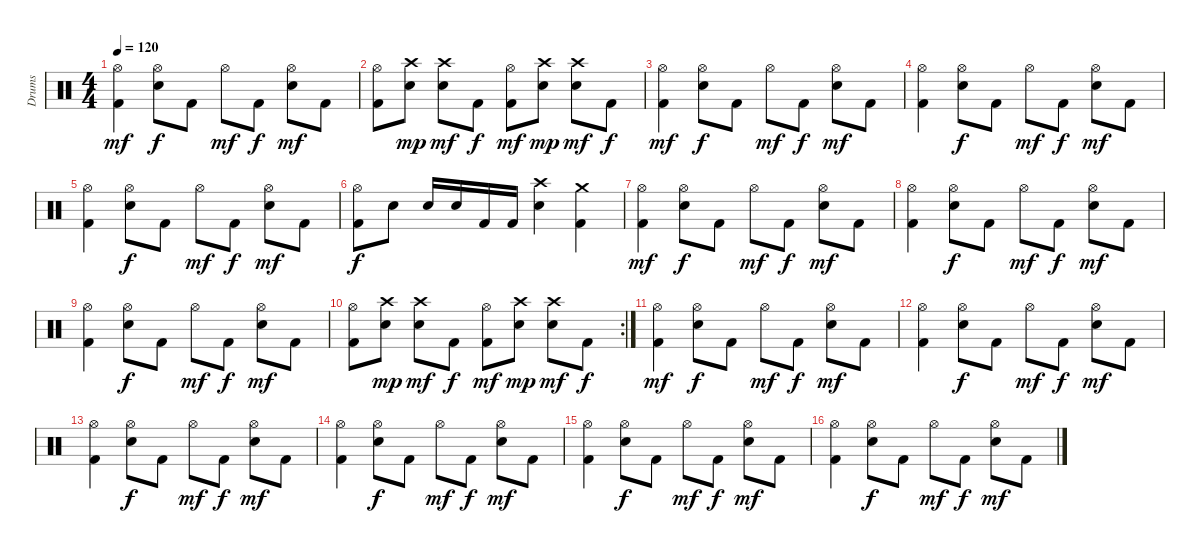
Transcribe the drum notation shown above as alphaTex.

\track ("Drums" "Drums") {instrument percussion}
\staff {score}
\articulation defaults
\ts (4 4)
\tempo 120
\clef neutral
\ks c
("Kick (hit) 2" "Hi-Hat (open)").4{dy mf} ("Hi-Hat (open)" "Electric Snare (hit)").8{dy f} "Kick (hit) 2".8 "Hi-Hat (open)".8{dy mf} "Kick (hit) 2".8{dy f} ("Electric Snare (hit)" "Hi-Hat (open)").8{dy mf} "Kick (hit) 2".8 |
("Kick (hit) 2" "Hi-Hat (open)").8 ("Electric Snare (hit)" "Crash high (hit)").8{dy mp} ("Electric Snare (hit)" "Crash high (hit)").8{dy mf} "Kick (hit) 2".8{dy f} ("Kick (hit) 2" "Hi-Hat (open)").8{dy mf} ("Electric Snare (hit)" "Crash high (hit)").8{dy mp} ("Electric Snare (hit)" "Crash high (hit)").8{dy mf} "Kick (hit) 2".8{dy f} |
("Kick (hit) 2" "Hi-Hat (open)").4{dy mf} ("Hi-Hat (open)" "Electric Snare (hit)").8{dy f} "Kick (hit) 2".8 "Hi-Hat (open)".8{dy mf} "Kick (hit) 2".8{dy f} ("Electric Snare (hit)" "Hi-Hat (open)").8{dy mf} "Kick (hit) 2".8 |
("Kick (hit) 2" "Hi-Hat (open)").4 ("Hi-Hat (open)" "Electric Snare (hit)").8{dy f} "Kick (hit) 2".8 "Hi-Hat (open)".8{dy mf} "Kick (hit) 2".8{dy f} ("Electric Snare (hit)" "Hi-Hat (open)").8{dy mf} "Kick (hit) 2".8 |
("Kick (hit) 2" "Hi-Hat (open)").4 ("Hi-Hat (open)" "Electric Snare (hit)").8{dy f} "Kick (hit) 2".8 "Hi-Hat (open)".8{dy mf} "Kick (hit) 2".8{dy f} ("Electric Snare (hit)" "Hi-Hat (open)").8{dy mf} "Kick (hit) 2".8 |
("Kick (hit) 2" "Hi-Hat (open)").8{dy f} "Electric Snare (hit)".8 "Electric Snare (hit)".16 "Electric Snare (hit)".16 "Kick (hit) 2".16 "Kick (hit) 2".16 ("Crash high (hit)" "Electric Snare (hit)").4 ("Kick (hit) 2" "Crash medium (hit)").4 |
("Kick (hit) 2" "Hi-Hat (open)").4{dy mf} ("Hi-Hat (open)" "Electric Snare (hit)").8{dy f} "Kick (hit) 2".8 "Hi-Hat (open)".8{dy mf} "Kick (hit) 2".8{dy f} ("Electric Snare (hit)" "Hi-Hat (open)").8{dy mf} "Kick (hit) 2".8 |
("Kick (hit) 2" "Hi-Hat (open)").4 ("Hi-Hat (open)" "Electric Snare (hit)").8{dy f} "Kick (hit) 2".8 "Hi-Hat (open)".8{dy mf} "Kick (hit) 2".8{dy f} ("Electric Snare (hit)" "Hi-Hat (open)").8{dy mf} "Kick (hit) 2".8 |
("Kick (hit) 2" "Hi-Hat (open)").4 ("Hi-Hat (open)" "Electric Snare (hit)").8{dy f} "Kick (hit) 2".8 "Hi-Hat (open)".8{dy mf} "Kick (hit) 2".8{dy f} ("Electric Snare (hit)" "Hi-Hat (open)").8{dy mf} "Kick (hit) 2".8 |
\rc 2
("Kick (hit) 2" "Hi-Hat (open)").8 ("Electric Snare (hit)" "Crash high (hit)").8{dy mp} ("Electric Snare (hit)" "Crash high (hit)").8{dy mf} "Kick (hit) 2".8{dy f} ("Kick (hit) 2" "Hi-Hat (open)").8{dy mf} ("Electric Snare (hit)" "Crash high (hit)").8{dy mp} ("Electric Snare (hit)" "Crash high (hit)").8{dy mf} "Kick (hit) 2".8{dy f} |
("Kick (hit) 2" "Hi-Hat (open)").4{dy mf} ("Hi-Hat (open)" "Electric Snare (hit)").8{dy f} "Kick (hit) 2".8 "Hi-Hat (open)".8{dy mf} "Kick (hit) 2".8{dy f} ("Electric Snare (hit)" "Hi-Hat (open)").8{dy mf} "Kick (hit) 2".8 |
("Kick (hit) 2" "Hi-Hat (open)").4 ("Hi-Hat (open)" "Electric Snare (hit)").8{dy f} "Kick (hit) 2".8 "Hi-Hat (open)".8{dy mf} "Kick (hit) 2".8{dy f} ("Electric Snare (hit)" "Hi-Hat (open)").8{dy mf} "Kick (hit) 2".8 |
("Kick (hit) 2" "Hi-Hat (open)").4 ("Hi-Hat (open)" "Electric Snare (hit)").8{dy f} "Kick (hit) 2".8 "Hi-Hat (open)".8{dy mf} "Kick (hit) 2".8{dy f} ("Electric Snare (hit)" "Hi-Hat (open)").8{dy mf} "Kick (hit) 2".8 |
("Kick (hit) 2" "Hi-Hat (open)").4 ("Hi-Hat (open)" "Electric Snare (hit)").8{dy f} "Kick (hit) 2".8 "Hi-Hat (open)".8{dy mf} "Kick (hit) 2".8{dy f} ("Electric Snare (hit)" "Hi-Hat (open)").8{dy mf} "Kick (hit) 2".8 |
("Kick (hit) 2" "Hi-Hat (open)").4 ("Hi-Hat (open)" "Electric Snare (hit)").8{dy f} "Kick (hit) 2".8 "Hi-Hat (open)".8{dy mf} "Kick (hit) 2".8{dy f} ("Electric Snare (hit)" "Hi-Hat (open)").8{dy mf} "Kick (hit) 2".8 |
("Kick (hit) 2" "Hi-Hat (open)").4 ("Hi-Hat (open)" "Electric Snare (hit)").8{dy f} "Kick (hit) 2".8 "Hi-Hat (open)".8{dy mf} "Kick (hit) 2".8{dy f} ("Electric Snare (hit)" "Hi-Hat (open)").8{dy mf} "Kick (hit) 2".8
